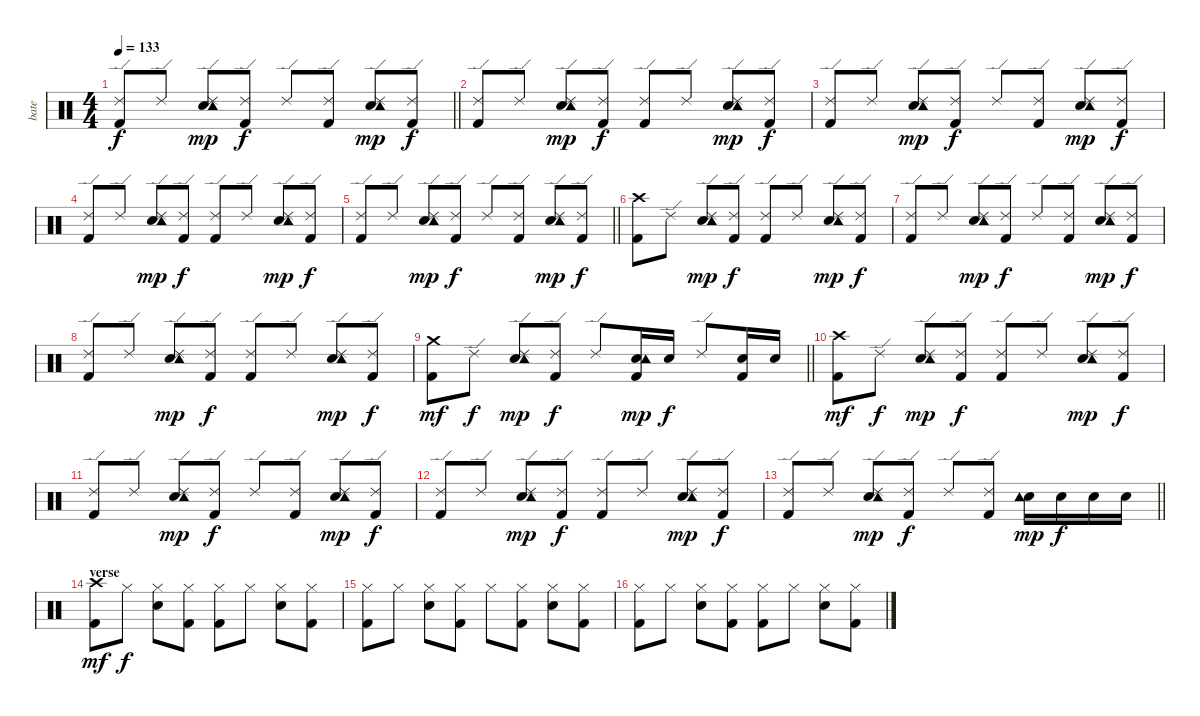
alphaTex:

\track ("bate" "bate") {instrument percussion}
\staff {score}
\articulation defaults
\ts (4 4)
\tempo 133
\clef neutral
\barLineRight lightlight
\ks c
("Ride (edge) 2" "Kick (hit) 2").8{dy f} "Ride (edge) 2".8 ("Ride (edge) 2" "Snare (hit) 2" "Tambourine (hit)").8{dy mp} ("Ride (edge) 2" "Kick (hit) 2").8{dy f} "Ride (edge) 2".8 ("Ride (edge) 2" "Kick (hit) 2").8 ("Ride (edge) 2" "Snare (hit) 2" "Tambourine (hit)").8{dy mp} ("Ride (edge) 2" "Kick (hit) 2").8{dy f} |
("Ride (edge) 2" "Kick (hit) 2").8 "Ride (edge) 2".8 ("Ride (edge) 2" "Snare (hit) 2" "Tambourine (hit)").8{dy mp} ("Ride (edge) 2" "Kick (hit) 2").8{dy f} ("Ride (edge) 2" "Kick (hit) 2").8 "Ride (edge) 2".8 ("Ride (edge) 2" "Snare (hit) 2" "Tambourine (hit)").8{dy mp} ("Ride (edge) 2" "Kick (hit) 2").8{dy f} |
("Ride (edge) 2" "Kick (hit) 2").8 "Ride (edge) 2".8 ("Ride (edge) 2" "Snare (hit) 2" "Tambourine (hit)").8{dy mp} ("Ride (edge) 2" "Kick (hit) 2").8{dy f} "Ride (edge) 2".8 ("Ride (edge) 2" "Kick (hit) 2").8 ("Ride (edge) 2" "Snare (hit) 2" "Tambourine (hit)").8{dy mp} ("Ride (edge) 2" "Kick (hit) 2").8{dy f} |
("Ride (edge) 2" "Kick (hit) 2").8 "Ride (edge) 2".8 ("Ride (edge) 2" "Snare (hit) 2" "Tambourine (hit)").8{dy mp} ("Ride (edge) 2" "Kick (hit) 2").8{dy f} ("Ride (edge) 2" "Kick (hit) 2").8 "Ride (edge) 2".8 ("Ride (edge) 2" "Snare (hit) 2" "Tambourine (hit)").8{dy mp} ("Ride (edge) 2" "Kick (hit) 2").8{dy f} |
\barLineRight lightlight
("Ride (edge) 2" "Kick (hit) 2").8 "Ride (edge) 2".8 ("Ride (edge) 2" "Snare (hit) 2" "Tambourine (hit)").8{dy mp} ("Ride (edge) 2" "Kick (hit) 2").8{dy f} "Ride (edge) 2".8 ("Ride (edge) 2" "Kick (hit) 2").8 ("Ride (edge) 2" "Snare (hit) 2" "Tambourine (hit)").8{dy mp} ("Ride (edge) 2" "Kick (hit) 2").8{dy f} |
("Crash high (hit)" "Kick (hit) 2").8 "Ride (edge) 2".8 ("Ride (edge) 2" "Snare (hit) 2" "Tambourine (hit)").8{dy mp} ("Ride (edge) 2" "Kick (hit) 2").8{dy f} ("Ride (edge) 2" "Kick (hit) 2").8 "Ride (edge) 2".8 ("Ride (edge) 2" "Snare (hit) 2" "Tambourine (hit)").8{dy mp} ("Ride (edge) 2" "Kick (hit) 2").8{dy f} |
("Ride (edge) 2" "Kick (hit) 2").8 "Ride (edge) 2".8 ("Ride (edge) 2" "Snare (hit) 2" "Tambourine (hit)").8{dy mp} ("Ride (edge) 2" "Kick (hit) 2").8{dy f} "Ride (edge) 2".8 ("Ride (edge) 2" "Kick (hit) 2").8 ("Ride (edge) 2" "Snare (hit) 2" "Tambourine (hit)").8{dy mp} ("Ride (edge) 2" "Kick (hit) 2").8{dy f} |
("Ride (edge) 2" "Kick (hit) 2").8 "Ride (edge) 2".8 ("Ride (edge) 2" "Snare (hit) 2" "Tambourine (hit)").8{dy mp} ("Ride (edge) 2" "Kick (hit) 2").8{dy f} ("Ride (edge) 2" "Kick (hit) 2").8 "Ride (edge) 2".8 ("Ride (edge) 2" "Snare (hit) 2" "Tambourine (hit)").8{dy mp} ("Ride (edge) 2" "Kick (hit) 2").8{dy f} |
\barLineRight lightlight
("Crash medium (hit)" "Kick (hit) 2").8{dy mf} "Ride (edge) 2".8{dy f} ("Ride (edge) 2" "Snare (hit) 2" "Tambourine (hit)").8{dy mp} ("Ride (edge) 2" "Kick (hit) 2").8{dy f} "Ride (edge) 2".8 ("Snare (hit) 2" "Tambourine (hit)" "Kick (hit) 2").16{dy mp} "Snare (hit) 2".16{dy f} "Ride (edge) 2".8 ("Snare (hit) 2" "Kick (hit) 2").16 "Snare (hit) 2".16 |
("Crash high (hit)" "Kick (hit) 2").8{dy mf} "Ride (edge) 2".8{dy f} ("Ride (edge) 2" "Snare (hit) 2" "Tambourine (hit)").8{dy mp} ("Ride (edge) 2" "Kick (hit) 2").8{dy f} ("Ride (edge) 2" "Kick (hit) 2").8 "Ride (edge) 2".8 ("Ride (edge) 2" "Snare (hit) 2" "Tambourine (hit)").8{dy mp} ("Ride (edge) 2" "Kick (hit) 2").8{dy f} |
("Ride (edge) 2" "Kick (hit) 2").8 "Ride (edge) 2".8 ("Ride (edge) 2" "Snare (hit) 2" "Tambourine (hit)").8{dy mp} ("Ride (edge) 2" "Kick (hit) 2").8{dy f} "Ride (edge) 2".8 ("Ride (edge) 2" "Kick (hit) 2").8 ("Ride (edge) 2" "Snare (hit) 2" "Tambourine (hit)").8{dy mp} ("Ride (edge) 2" "Kick (hit) 2").8{dy f} |
("Ride (edge) 2" "Kick (hit) 2").8 "Ride (edge) 2".8 ("Ride (edge) 2" "Snare (hit) 2" "Tambourine (hit)").8{dy mp} ("Ride (edge) 2" "Kick (hit) 2").8{dy f} ("Ride (edge) 2" "Kick (hit) 2").8 "Ride (edge) 2".8 ("Ride (edge) 2" "Snare (hit) 2" "Tambourine (hit)").8{dy mp} ("Ride (edge) 2" "Kick (hit) 2").8{dy f} |
\barLineRight lightlight
("Ride (edge) 2" "Kick (hit) 2").8 "Ride (edge) 2".8 ("Ride (edge) 2" "Snare (hit) 2" "Tambourine (hit)").8{dy mp} ("Ride (edge) 2" "Kick (hit) 2").8{dy f} "Ride (edge) 2".8 ("Ride (edge) 2" "Kick (hit) 2").8 ("Snare (hit) 2" "Tambourine (hit)").16{dy mp} "Snare (hit) 2".16{dy f} "Snare (hit) 2".16 "Snare (hit) 2".16 |
\section ("" "verse")
("Crash high (hit)" "Kick (hit) 2").8{dy mf} "Hi-Hat (closed)".8{dy f} ("Hi-Hat (closed)" "Snare (hit) 2").8 ("Hi-Hat (closed)" "Kick (hit) 2").8 ("Hi-Hat (closed)" "Kick (hit) 2").8 "Hi-Hat (closed)".8 ("Hi-Hat (closed)" "Snare (hit) 2").8 ("Hi-Hat (closed)" "Kick (hit) 2").8 |
("Hi-Hat (closed)" "Kick (hit) 2").8 "Hi-Hat (closed)".8 ("Hi-Hat (closed)" "Snare (hit) 2").8 ("Hi-Hat (closed)" "Kick (hit) 2").8 "Hi-Hat (closed)".8 ("Hi-Hat (closed)" "Kick (hit) 2").8 ("Hi-Hat (closed)" "Snare (hit) 2").8 ("Hi-Hat (closed)" "Kick (hit) 2").8 |
("Hi-Hat (closed)" "Kick (hit) 2").8 "Hi-Hat (closed)".8 ("Hi-Hat (closed)" "Snare (hit) 2").8 ("Hi-Hat (closed)" "Kick (hit) 2").8 ("Hi-Hat (closed)" "Kick (hit) 2").8 "Hi-Hat (closed)".8 ("Hi-Hat (closed)" "Snare (hit) 2").8 ("Hi-Hat (closed)" "Kick (hit) 2").8
